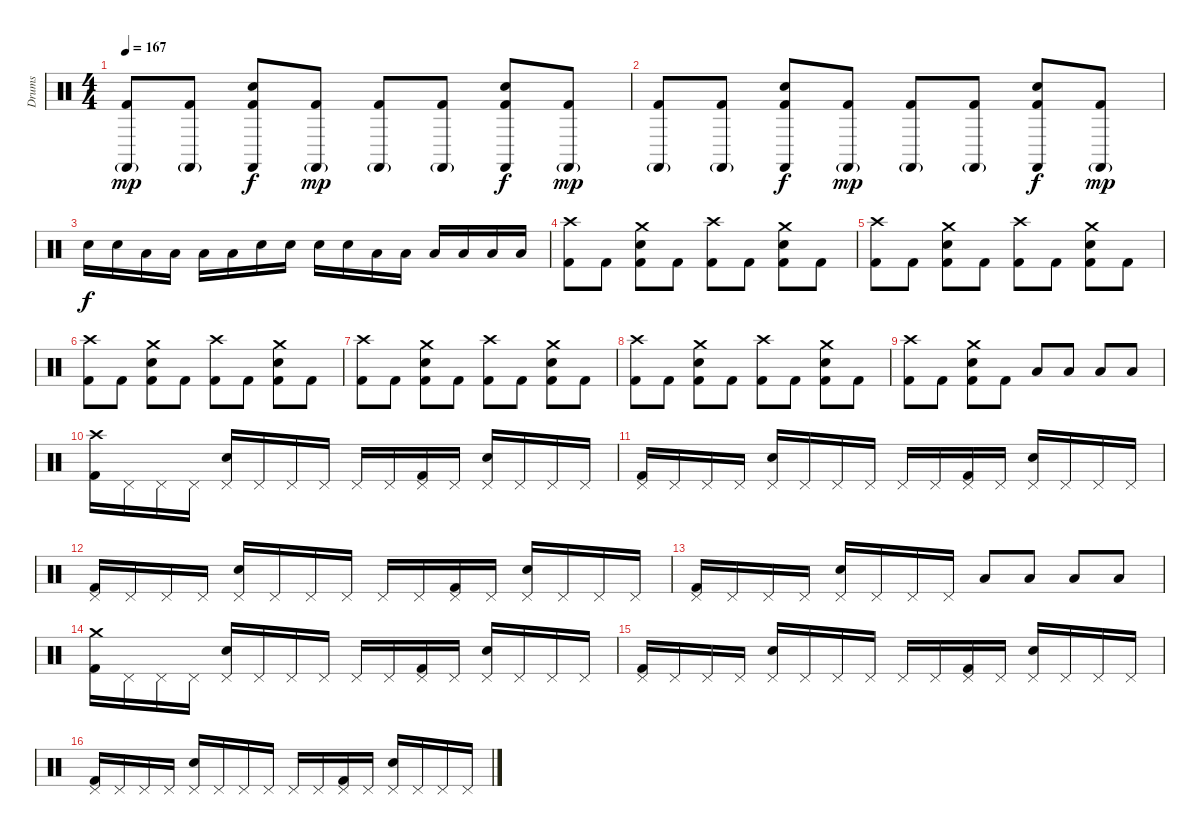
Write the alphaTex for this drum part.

\track ("Drums" "Drums") {instrument percussion}
\staff {score}
\articulation defaults
\ts (4 4)
\tempo 167
\clef neutral
\ks c
("Castanets (hit)"{g} "Kick (hit) 2").8{dy mp} ("Castanets (hit)"{g} "Kick (hit) 2").8 ("Castanets (hit)" "Snare (hit) 2" "Kick (hit) 2").8{dy f} ("Castanets (hit)"{g} "Kick (hit) 2").8{dy mp} ("Castanets (hit)"{g} "Kick (hit) 2").8 ("Castanets (hit)"{g} "Kick (hit) 2").8 ("Castanets (hit)" "Snare (hit) 2" "Kick (hit) 2").8{dy f} ("Castanets (hit)"{g} "Kick (hit) 2").8{dy mp} |
("Castanets (hit)"{g} "Kick (hit) 2").8 ("Castanets (hit)"{g} "Kick (hit) 2").8 ("Castanets (hit)" "Snare (hit) 2" "Kick (hit) 2").8{dy f} ("Castanets (hit)"{g} "Kick (hit) 2").8{dy mp} ("Castanets (hit)"{g} "Kick (hit) 2").8 ("Castanets (hit)"{g} "Kick (hit) 2").8 ("Castanets (hit)" "Snare (hit) 2" "Kick (hit) 2").8{dy f} ("Castanets (hit)"{g} "Kick (hit) 2").8{dy mp} |
"Snare (hit) 2".16{dy f} "Snare (hit) 2".16 "Low Tom (hit)".16 "Low Tom (hit)".16 "Low Floor Tom (hit)".16 "Low Floor Tom (hit)".16 "Snare (hit) 2".16 "Snare (hit) 2".16 "Snare (hit) 2".16 "Snare (hit) 2".16 "Low Tom (hit)".16 "Low Tom (hit)".16 "Low Floor Tom (hit)".16 "Low Floor Tom (hit)".16 "Low Floor Tom (hit)".16 "Low Floor Tom (hit)".16 |
("Crash high (hit)" "Kick (hit) 2").8 "Kick (hit) 2".8 ("Crash medium (hit)" "Snare (hit) 2" "Kick (hit) 2").8 "Kick (hit) 2".8 ("Crash high (hit)" "Kick (hit) 2").8 "Kick (hit) 2".8 ("Crash medium (hit)" "Snare (hit) 2" "Kick (hit) 2").8 "Kick (hit) 2".8 |
("Crash high (hit)" "Kick (hit) 2").8 "Kick (hit) 2".8 ("Crash medium (hit)" "Snare (hit) 2" "Kick (hit) 2").8 "Kick (hit) 2".8 ("Crash high (hit)" "Kick (hit) 2").8 "Kick (hit) 2".8 ("Crash medium (hit)" "Snare (hit) 2" "Kick (hit) 2").8 "Kick (hit) 2".8 |
("Crash high (hit)" "Kick (hit) 2").8 "Kick (hit) 2".8 ("Crash medium (hit)" "Snare (hit) 2" "Kick (hit) 2").8 "Kick (hit) 2".8 ("Crash high (hit)" "Kick (hit) 2").8 "Kick (hit) 2".8 ("Crash medium (hit)" "Snare (hit) 2" "Kick (hit) 2").8 "Kick (hit) 2".8 |
("Crash high (hit)" "Kick (hit) 2").8 "Kick (hit) 2".8 ("Crash medium (hit)" "Snare (hit) 2" "Kick (hit) 2").8 "Kick (hit) 2".8 ("Crash high (hit)" "Kick (hit) 2").8 "Kick (hit) 2".8 ("Crash medium (hit)" "Snare (hit) 2" "Kick (hit) 2").8 "Kick (hit) 2".8 |
("Crash high (hit)" "Kick (hit) 2").8 "Kick (hit) 2".8 ("Crash medium (hit)" "Snare (hit) 2" "Kick (hit) 2").8 "Kick (hit) 2".8 ("Crash high (hit)" "Kick (hit) 2").8 "Kick (hit) 2".8 ("Crash medium (hit)" "Snare (hit) 2" "Kick (hit) 2").8 "Kick (hit) 2".8 |
("Crash high (hit)" "Kick (hit) 2").8 "Kick (hit) 2".8 ("Crash medium (hit)" "Snare (hit) 2" "Kick (hit) 2").8 "Kick (hit) 2".8 "Low Tom (hit)".8 "Low Tom (hit)".8 "Low Floor Tom (hit)".8 "Low Floor Tom (hit)".8 |
("Crash high (hit)" "Kick (hit) 2").16 "Pedal Hi-Hat (hit)".16 "Pedal Hi-Hat (hit)".16 "Pedal Hi-Hat (hit)".16 ("Pedal Hi-Hat (hit)" "Snare (hit) 2").16 "Pedal Hi-Hat (hit)".16 "Pedal Hi-Hat (hit)".16 "Pedal Hi-Hat (hit)".16 "Pedal Hi-Hat (hit)".16 "Pedal Hi-Hat (hit)".16 ("Pedal Hi-Hat (hit)" "Kick (hit) 2").16 "Pedal Hi-Hat (hit)".16 ("Pedal Hi-Hat (hit)" "Snare (hit) 2").16 "Pedal Hi-Hat (hit)".16 "Pedal Hi-Hat (hit)".16 "Pedal Hi-Hat (hit)".16 |
("Pedal Hi-Hat (hit)" "Kick (hit) 2").16 "Pedal Hi-Hat (hit)".16 "Pedal Hi-Hat (hit)".16 "Pedal Hi-Hat (hit)".16 ("Pedal Hi-Hat (hit)" "Snare (hit) 2").16 "Pedal Hi-Hat (hit)".16 "Pedal Hi-Hat (hit)".16 "Pedal Hi-Hat (hit)".16 "Pedal Hi-Hat (hit)".16 "Pedal Hi-Hat (hit)".16 ("Pedal Hi-Hat (hit)" "Kick (hit) 2").16 "Pedal Hi-Hat (hit)".16 ("Pedal Hi-Hat (hit)" "Snare (hit) 2").16 "Pedal Hi-Hat (hit)".16 "Pedal Hi-Hat (hit)".16 "Pedal Hi-Hat (hit)".16 |
("Pedal Hi-Hat (hit)" "Kick (hit) 2").16 "Pedal Hi-Hat (hit)".16 "Pedal Hi-Hat (hit)".16 "Pedal Hi-Hat (hit)".16 ("Pedal Hi-Hat (hit)" "Snare (hit) 2").16 "Pedal Hi-Hat (hit)".16 "Pedal Hi-Hat (hit)".16 "Pedal Hi-Hat (hit)".16 "Pedal Hi-Hat (hit)".16 "Pedal Hi-Hat (hit)".16 ("Pedal Hi-Hat (hit)" "Kick (hit) 2").16 "Pedal Hi-Hat (hit)".16 ("Pedal Hi-Hat (hit)" "Snare (hit) 2").16 "Pedal Hi-Hat (hit)".16 "Pedal Hi-Hat (hit)".16 "Pedal Hi-Hat (hit)".16 |
("Pedal Hi-Hat (hit)" "Kick (hit) 2").16 "Pedal Hi-Hat (hit)".16 "Pedal Hi-Hat (hit)".16 "Pedal Hi-Hat (hit)".16 ("Pedal Hi-Hat (hit)" "Snare (hit) 2").16 "Pedal Hi-Hat (hit)".16 "Pedal Hi-Hat (hit)".16 "Pedal Hi-Hat (hit)".16 "Low Tom (hit)".8 "Low Tom (hit)".8 "Low Floor Tom (hit)".8 "Low Floor Tom (hit)".8 |
("Crash medium (hit)" "Kick (hit) 2").16 "Pedal Hi-Hat (hit)".16 "Pedal Hi-Hat (hit)".16 "Pedal Hi-Hat (hit)".16 ("Pedal Hi-Hat (hit)" "Snare (hit) 2").16 "Pedal Hi-Hat (hit)".16 "Pedal Hi-Hat (hit)".16 "Pedal Hi-Hat (hit)".16 "Pedal Hi-Hat (hit)".16 "Pedal Hi-Hat (hit)".16 ("Pedal Hi-Hat (hit)" "Kick (hit) 2").16 "Pedal Hi-Hat (hit)".16 ("Pedal Hi-Hat (hit)" "Snare (hit) 2").16 "Pedal Hi-Hat (hit)".16 "Pedal Hi-Hat (hit)".16 "Pedal Hi-Hat (hit)".16 |
("Pedal Hi-Hat (hit)" "Kick (hit) 2").16 "Pedal Hi-Hat (hit)".16 "Pedal Hi-Hat (hit)".16 "Pedal Hi-Hat (hit)".16 ("Pedal Hi-Hat (hit)" "Snare (hit) 2").16 "Pedal Hi-Hat (hit)".16 "Pedal Hi-Hat (hit)".16 "Pedal Hi-Hat (hit)".16 "Pedal Hi-Hat (hit)".16 "Pedal Hi-Hat (hit)".16 ("Pedal Hi-Hat (hit)" "Kick (hit) 2").16 "Pedal Hi-Hat (hit)".16 ("Pedal Hi-Hat (hit)" "Snare (hit) 2").16 "Pedal Hi-Hat (hit)".16 "Pedal Hi-Hat (hit)".16 "Pedal Hi-Hat (hit)".16 |
("Pedal Hi-Hat (hit)" "Kick (hit) 2").16 "Pedal Hi-Hat (hit)".16 "Pedal Hi-Hat (hit)".16 "Pedal Hi-Hat (hit)".16 ("Pedal Hi-Hat (hit)" "Snare (hit) 2").16 "Pedal Hi-Hat (hit)".16 "Pedal Hi-Hat (hit)".16 "Pedal Hi-Hat (hit)".16 "Pedal Hi-Hat (hit)".16 "Pedal Hi-Hat (hit)".16 ("Pedal Hi-Hat (hit)" "Kick (hit) 2").16 "Pedal Hi-Hat (hit)".16 ("Pedal Hi-Hat (hit)" "Snare (hit) 2").16 "Pedal Hi-Hat (hit)".16 "Pedal Hi-Hat (hit)".16 "Pedal Hi-Hat (hit)".16
